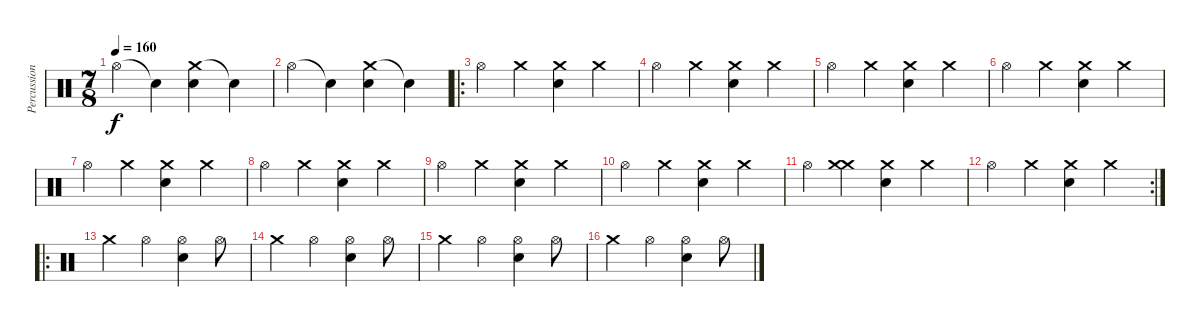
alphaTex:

\track ("Percussion" "Percussion") {instrument percussion}
\staff {score}
\articulation defaults
\ts (7 8)
\tempo 160
\clef neutral
\ks c "Hi-Hat (open)".4{dy f} "Snare (hit)"{t}.4
("Crash medium (hit)" "Snare (hit) 2").4 "Snare (hit)"{t}.4 |
"Hi-Hat (open)".4 "Snare (hit)"{t}.4 ("Crash medium (hit)" "Snare (hit) 2").4 "Snare (hit)"{t}.4 |
\ro "Hi-Hat (open)".4 "Crash medium (hit)".4
("Crash medium (hit)" "Snare (hit) 2").4 "Crash medium (hit)".4 |
"Hi-Hat (open)".4 "Crash medium (hit)".4 ("Crash medium (hit)" "Snare (hit) 2").4 "Crash medium (hit)".4 |
"Hi-Hat (open)".4 "Crash medium (hit)".4 ("Crash medium (hit)" "Snare (hit) 2").4 "Crash medium (hit)".4 |
"Hi-Hat (open)".4 "Crash medium (hit)".4 ("Crash medium (hit)" "Snare (hit) 2").4 "Crash medium (hit)".4 |
"Hi-Hat (open)".4 "Crash medium (hit)".4 ("Crash medium (hit)" "Snare (hit) 2").4 "Crash medium (hit)".4 |
"Hi-Hat (open)".4 "Crash medium (hit)".4 ("Crash medium (hit)" "Snare (hit) 2").4 "Crash medium (hit)".4 |
"Hi-Hat (open)".4 "Crash medium (hit)".4 ("Crash medium (hit)" "Snare (hit) 2").4 "Crash medium (hit)".4 |
"Hi-Hat (open)".4 "Crash medium (hit)".4 ("Crash medium (hit)" "Snare (hit) 2").4 "Crash medium (hit)".4 |
"Hi-Hat (open)".4 ("Crash medium (hit)" "Crash medium (hit)").4 ("Crash medium (hit)" "Snare (hit) 2").4 "Crash medium (hit)".4 |
\rc 2 "Hi-Hat (open)".4 "Crash medium (hit)".4
("Crash medium (hit)" "Snare (hit) 2").4 "Crash medium (hit)".4 |
\ro "Crash medium (hit)".4 "Hi-Hat (open)".4
("Hi-Hat (open)" "Snare (hit) 2").4 "Hi-Hat (open)".8 |
"Crash medium (hit)".4 "Hi-Hat (open)".4 ("Hi-Hat (open)" "Snare (hit) 2").4 "Hi-Hat (open)".8 |
"Crash medium (hit)".4 "Hi-Hat (open)".4 ("Hi-Hat (open)" "Snare (hit) 2").4 "Hi-Hat (open)".8 |
"Crash medium (hit)".4 "Hi-Hat (open)".4 ("Hi-Hat (open)" "Snare (hit) 2").4 "Hi-Hat (open)".8
